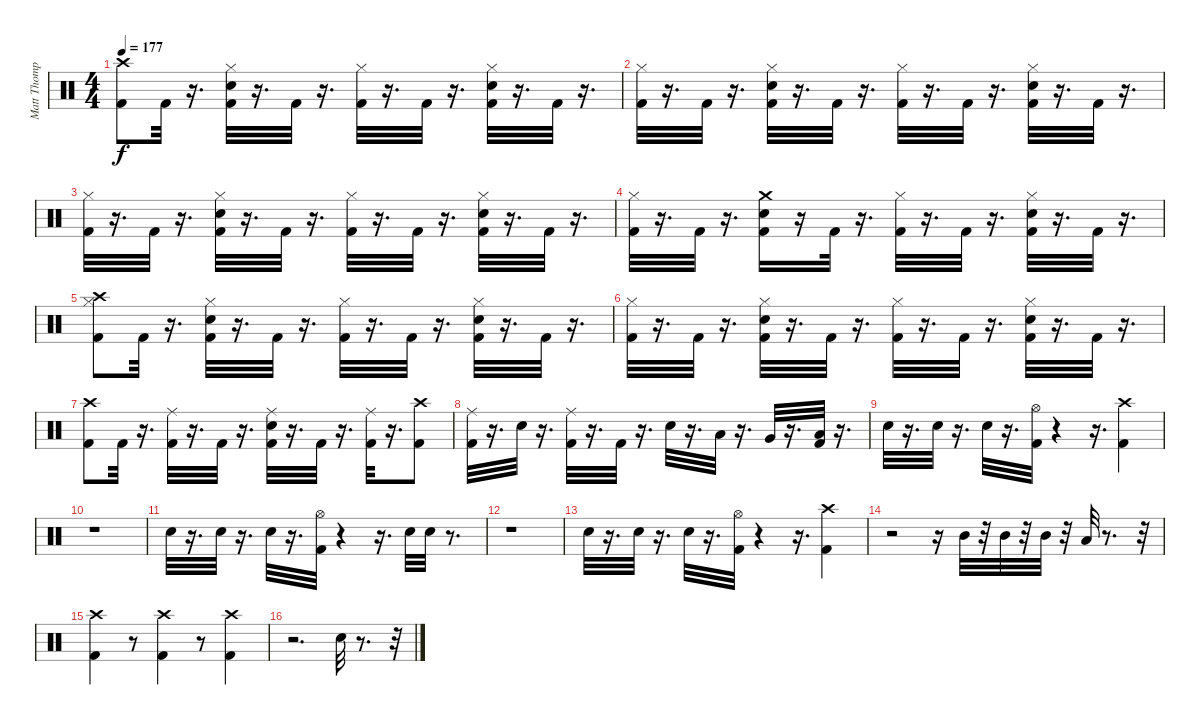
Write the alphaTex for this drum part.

\track ("Matt Thompson" "Matt Thomp") {instrument percussion}
\staff {score}
\articulation defaults
\ts (4 4)
\tempo 177
\clef neutral
\ks c
("Crash high (hit)" "Kick (hit) 2").8{dy f} "Kick (hit) 2".32 r.16{d} ("Snare (hit) 2" "Hi-Hat (closed)" "Kick (hit) 2").32 r.16{d} "Kick (hit) 2".32 r.16{d} ("Hi-Hat (closed)" "Kick (hit) 2").32 r.16{d} "Kick (hit) 2".32 r.16{d} ("Snare (hit) 2" "Hi-Hat (closed)" "Kick (hit) 2").32 r.16{d} "Kick (hit) 2".32 r.16{d} |
("Hi-Hat (closed)" "Kick (hit) 2").32 r.16{d} "Kick (hit) 2".32 r.16{d} ("Snare (hit) 2" "Hi-Hat (closed)" "Kick (hit) 2").32 r.16{d} "Kick (hit) 2".32 r.16{d} ("Hi-Hat (closed)" "Kick (hit) 2").32 r.16{d} "Kick (hit) 2".32 r.16{d} ("Snare (hit) 2" "Hi-Hat (closed)" "Kick (hit) 2").32 r.16{d} "Kick (hit) 2".32 r.16{d} |
("Hi-Hat (closed)" "Kick (hit) 2").32 r.16{d} "Kick (hit) 2".32 r.16{d} ("Snare (hit) 2" "Hi-Hat (closed)" "Kick (hit) 2").32 r.16{d} "Kick (hit) 2".32 r.16{d} ("Hi-Hat (closed)" "Kick (hit) 2").32 r.16{d} "Kick (hit) 2".32 r.16{d} ("Snare (hit) 2" "Hi-Hat (closed)" "Kick (hit) 2").32 r.16{d} "Kick (hit) 2".32 r.16{d} |
("Hi-Hat (closed)" "Kick (hit) 2").32 r.16{d} "Kick (hit) 2".32 r.16{d} ("Crash medium (hit)" "Kick (hit) 2" "Snare (hit) 2").16 r.16 "Kick (hit) 2".32 r.16{d} ("Hi-Hat (closed)" "Kick (hit) 2").32 r.16{d} "Kick (hit) 2".32 r.16{d} ("Hi-Hat (closed)" "Snare (hit) 2" "Kick (hit) 2").32 r.16{d} "Kick (hit) 2".32 r.16{d} |
("Hi-Hat (closed)" "Crash high (hit)" "Kick (hit) 2").8 "Kick (hit) 2".32 r.16{d} ("Snare (hit) 2" "Hi-Hat (closed)" "Kick (hit) 2").32 r.16{d} "Kick (hit) 2".32 r.16{d} ("Hi-Hat (closed)" "Kick (hit) 2").32 r.16{d} "Kick (hit) 2".32 r.16{d} ("Snare (hit) 2" "Hi-Hat (closed)" "Kick (hit) 2").32 r.16{d} "Kick (hit) 2".32 r.16{d} |
("Hi-Hat (closed)" "Kick (hit) 2").32 r.16{d} "Kick (hit) 2".32 r.16{d} ("Snare (hit) 2" "Hi-Hat (closed)" "Kick (hit) 2").32 r.16{d} "Kick (hit) 2".32 r.16{d} ("Hi-Hat (closed)" "Kick (hit) 2").32 r.16{d} "Kick (hit) 2".32 r.16{d} ("Snare (hit) 2" "Hi-Hat (closed)" "Kick (hit) 2").32 r.16{d} "Kick (hit) 2".32 r.16{d} |
("Crash high (hit)" "Kick (hit) 2").8 "Kick (hit) 2".32 r.16{d} ("Ride (middle)" "Kick (hit) 2").32 r.16{d} "Kick (hit) 2".32 r.16{d} ("Ride (middle)" "Snare (hit) 2" "Kick (hit) 2").32 r.16{d} "Kick (hit) 2".32 r.16{d} ("Ride (middle)" "Kick (hit) 2").32 r.16{d} ("Crash high (hit)" "Kick (hit) 2").8 |
("Ride (middle)" "Kick (hit) 2").32 r.16{d} "Snare (hit) 2".32 r.16{d} ("Ride (middle)" "Kick (hit) 2").32 r.16{d} "Kick (hit) 2".32 r.16{d} "Snare (hit) 2".32 r.16{d} "Low Tom (hit)".32 r.16{d} "Very Low Tom (hit)".32 r.16{d} ("Kick (hit) 2" "Low Floor Tom (hit)").32 r.16{d} |
"Snare (hit) 2".32 r.16{d} "Snare (hit) 2".32 r.16{d} "Snare (hit) 2".32 r.16{d} ("Hi-Hat (open)" "Kick (hit) 2").32 r.4 r.16{d} ("Crash high (hit)" "Kick (hit) 2").4 |
r.1 |
"Snare (hit) 2".32 r.16{d} "Snare (hit) 2".32 r.16{d} "Snare (hit) 2".32 r.16{d} ("Hi-Hat (open)" "Kick (hit) 2").32 r.4 r.16{d} "Snare (hit) 2".32 "Snare (hit) 2".32 r.8{d} |
r.1 |
"Snare (hit) 2".32 r.16{d} "Snare (hit) 2".32 r.16{d} "Snare (hit) 2".32 r.16{d} ("Hi-Hat (open)" "Kick (hit) 2").32 r.4 r.16{d} ("Crash high (hit)" "Kick (hit) 2").4 |
r.2 r.16 "Mid Tom (hit)".32 r.32 "Mid Tom (hit)".32 r.32 "Mid Tom (hit)".32 r.32 "Low Tom (hit)".32 r.8{d} r.32 |
("Crash high (hit)" "Kick (hit) 2").4 r.8 ("Crash high (hit)" "Kick (hit) 2").4 r.8 ("Crash high (hit)" "Kick (hit) 2").4 |
r.2{d} "Snare (hit) 2".32 r.8{d} r.32
